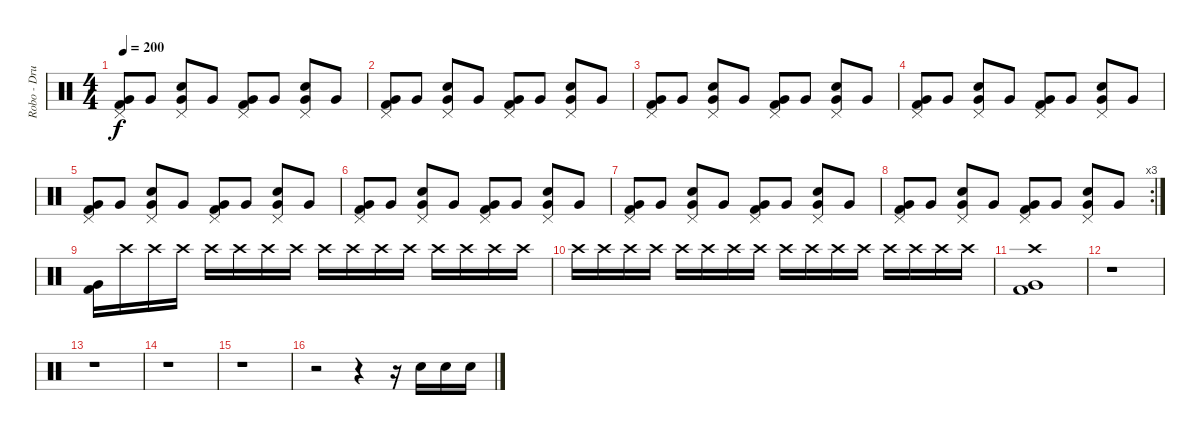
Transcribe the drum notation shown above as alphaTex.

\track ("Robo - Drums" "Robo - Dru") {instrument percussion}
\staff {score}
\articulation defaults
\ts (4 4)
\tempo 200
\clef neutral
\ks c
("Very Low Tom (hit)" "Pedal Hi-Hat (hit)" "Kick (hit) 2").8{dy f} "Very Low Tom (hit)".8 ("Very Low Tom (hit)" "Pedal Hi-Hat (hit)" "Snare (hit) 2").8 "Very Low Tom (hit)".8 ("Very Low Tom (hit)" "Pedal Hi-Hat (hit)" "Kick (hit) 2").8 "Very Low Tom (hit)".8 ("Very Low Tom (hit)" "Pedal Hi-Hat (hit)" "Snare (hit) 2").8 "Very Low Tom (hit)".8 |
("Very Low Tom (hit)" "Pedal Hi-Hat (hit)" "Kick (hit) 2").8 "Very Low Tom (hit)".8 ("Very Low Tom (hit)" "Pedal Hi-Hat (hit)" "Snare (hit) 2").8 "Very Low Tom (hit)".8 ("Very Low Tom (hit)" "Pedal Hi-Hat (hit)" "Kick (hit) 2").8 "Very Low Tom (hit)".8 ("Very Low Tom (hit)" "Pedal Hi-Hat (hit)" "Snare (hit) 2").8 "Very Low Tom (hit)".8 |
("Very Low Tom (hit)" "Pedal Hi-Hat (hit)" "Kick (hit) 2").8 "Very Low Tom (hit)".8 ("Very Low Tom (hit)" "Pedal Hi-Hat (hit)" "Snare (hit) 2").8 "Very Low Tom (hit)".8 ("Very Low Tom (hit)" "Pedal Hi-Hat (hit)" "Kick (hit) 2").8 "Very Low Tom (hit)".8 ("Very Low Tom (hit)" "Pedal Hi-Hat (hit)" "Snare (hit) 2").8 "Very Low Tom (hit)".8 |
("Very Low Tom (hit)" "Pedal Hi-Hat (hit)" "Kick (hit) 2").8 "Very Low Tom (hit)".8 ("Very Low Tom (hit)" "Pedal Hi-Hat (hit)" "Snare (hit) 2").8 "Very Low Tom (hit)".8 ("Very Low Tom (hit)" "Pedal Hi-Hat (hit)" "Kick (hit) 2").8 "Very Low Tom (hit)".8 ("Very Low Tom (hit)" "Pedal Hi-Hat (hit)" "Snare (hit) 2").8 "Very Low Tom (hit)".8 |
("Very Low Tom (hit)" "Pedal Hi-Hat (hit)" "Kick (hit) 2").8 "Very Low Tom (hit)".8 ("Very Low Tom (hit)" "Pedal Hi-Hat (hit)" "Snare (hit) 2").8 "Very Low Tom (hit)".8 ("Very Low Tom (hit)" "Pedal Hi-Hat (hit)" "Kick (hit) 2").8 "Very Low Tom (hit)".8 ("Very Low Tom (hit)" "Pedal Hi-Hat (hit)" "Snare (hit) 2").8 "Very Low Tom (hit)".8 |
("Very Low Tom (hit)" "Pedal Hi-Hat (hit)" "Kick (hit) 2").8 "Very Low Tom (hit)".8 ("Very Low Tom (hit)" "Pedal Hi-Hat (hit)" "Snare (hit) 2").8 "Very Low Tom (hit)".8 ("Very Low Tom (hit)" "Pedal Hi-Hat (hit)" "Kick (hit) 2").8 "Very Low Tom (hit)".8 ("Very Low Tom (hit)" "Pedal Hi-Hat (hit)" "Snare (hit) 2").8 "Very Low Tom (hit)".8 |
("Very Low Tom (hit)" "Pedal Hi-Hat (hit)" "Kick (hit) 2").8 "Very Low Tom (hit)".8 ("Very Low Tom (hit)" "Pedal Hi-Hat (hit)" "Snare (hit) 2").8 "Very Low Tom (hit)".8 ("Very Low Tom (hit)" "Pedal Hi-Hat (hit)" "Kick (hit) 2").8 "Very Low Tom (hit)".8 ("Very Low Tom (hit)" "Pedal Hi-Hat (hit)" "Snare (hit) 2").8 "Very Low Tom (hit)".8 |
\rc 3
("Very Low Tom (hit)" "Pedal Hi-Hat (hit)" "Kick (hit) 2").8 "Very Low Tom (hit)".8 ("Very Low Tom (hit)" "Pedal Hi-Hat (hit)" "Snare (hit) 2").8 "Very Low Tom (hit)".8 ("Very Low Tom (hit)" "Pedal Hi-Hat (hit)" "Kick (hit) 2").8 "Very Low Tom (hit)".8 ("Very Low Tom (hit)" "Pedal Hi-Hat (hit)" "Snare (hit) 2").8 "Very Low Tom (hit)".8 |
("Very Low Tom (hit)" "Kick (hit) 2").16 "Crash high (hit)".16 "Crash high (hit)".16 "Crash high (hit)".16 "Crash high (hit)".16 "Crash high (hit)".16 "Crash high (hit)".16 "Crash high (hit)".16 "Crash high (hit)".16 "Crash high (hit)".16 "Crash high (hit)".16 "Crash high (hit)".16 "Crash high (hit)".16 "Crash high (hit)".16 "Crash high (hit)".16 "Crash high (hit)".16 |
"Crash high (hit)".16 "Crash high (hit)".16 "Crash high (hit)".16 "Crash high (hit)".16 "Crash high (hit)".16 "Crash high (hit)".16 "Crash high (hit)".16 "Crash high (hit)".16 "Crash high (hit)".16 "Crash high (hit)".16 "Crash high (hit)".16 "Crash high (hit)".16 "Crash high (hit)".16 "Crash high (hit)".16 "Crash high (hit)".16 "Crash high (hit)".16 |
("Crash high (hit)" "Very Low Tom (hit)" "Kick (hit) 2").1 |
r.1 |
r.1 |
r.1 |
r.1 |
r.2 r.4 r.16 "Snare (hit) 2".16 "Snare (hit) 2".16 "Snare (hit) 2".16
